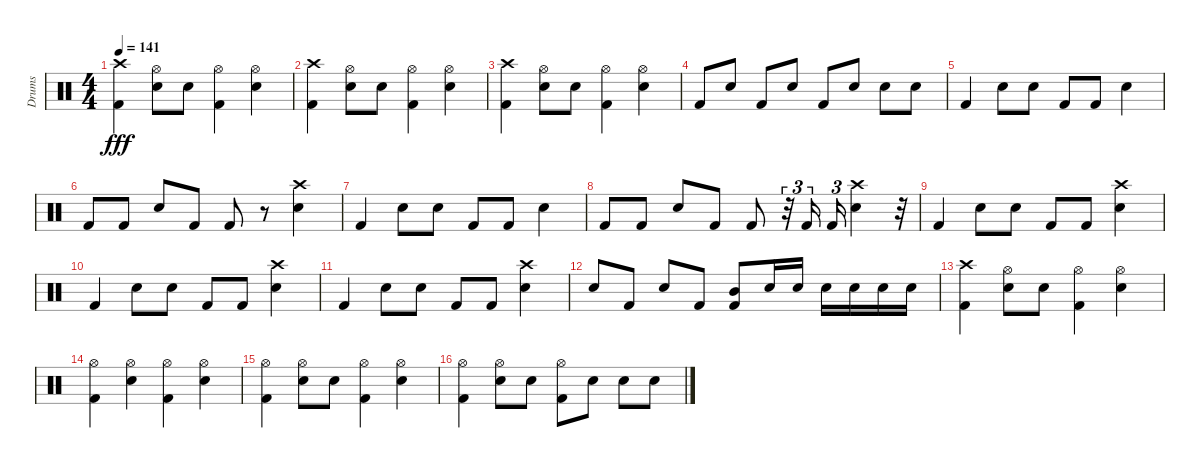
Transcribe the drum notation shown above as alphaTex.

\track ("Drums" "Drums") {instrument percussion}
\staff {score}
\articulation defaults
\ts (4 4)
\tempo 141
\clef neutral
\ks c
("Crash high (hit)" "Kick (hit) 2").4{dy fff} ("Hi-Hat (open)" "Electric Snare (hit)").8 "Electric Snare (hit)".8 ("Hi-Hat (open)" "Kick (hit) 2").4 ("Hi-Hat (open)" "Electric Snare (hit)").4 |
("Crash high (hit)" "Kick (hit) 2").4 ("Hi-Hat (open)" "Electric Snare (hit)").8 "Electric Snare (hit)".8 ("Hi-Hat (open)" "Kick (hit) 2").4 ("Hi-Hat (open)" "Electric Snare (hit)").4 |
("Crash high (hit)" "Kick (hit) 2").4 ("Hi-Hat (open)" "Electric Snare (hit)").8 "Electric Snare (hit)".8 ("Hi-Hat (open)" "Kick (hit) 2").4 ("Hi-Hat (open)" "Electric Snare (hit)").4 |
"Kick (hit) 2".8 "Electric Snare (hit)".8 "Kick (hit) 2".8 "Electric Snare (hit)".8 "Kick (hit) 2".8 "Electric Snare (hit)".8 "Electric Snare (hit)".8 "Electric Snare (hit)".8 |
"Kick (hit) 2".4 "Electric Snare (hit)".8 "Electric Snare (hit)".8 "Kick (hit) 2".8 "Kick (hit) 2".8 "Electric Snare (hit)".4 |
"Kick (hit) 2".8 "Kick (hit) 2".8 "Electric Snare (hit)".8 "Kick (hit) 2".8 "Kick (hit) 2".8 r.8 ("Crash high (hit)" "Electric Snare (hit)").4 |
"Kick (hit) 2".4 "Electric Snare (hit)".8 "Electric Snare (hit)".8 "Kick (hit) 2".8 "Kick (hit) 2".8 "Electric Snare (hit)".4 |
"Kick (hit) 2".8 "Kick (hit) 2".8 "Electric Snare (hit)".8 "Kick (hit) 2".8 "Kick (hit) 2".8 r.32{tu (3 2)} "Kick (hit) 2".16{tu (3 2)} "Kick (hit) 2".16{tu (3 2)} ("Crash high (hit)" "Electric Snare (hit)").4 r.32{tu (3 2)} |
"Kick (hit) 2".4 "Electric Snare (hit)".8 "Electric Snare (hit)".8 "Kick (hit) 2".8 "Kick (hit) 2".8 ("Crash high (hit)" "Electric Snare (hit)").4 |
"Kick (hit) 2".4 "Electric Snare (hit)".8 "Electric Snare (hit)".8 "Kick (hit) 2".8 "Kick (hit) 2".8 ("Crash high (hit)" "Electric Snare (hit)").4 |
"Kick (hit) 2".4 "Electric Snare (hit)".8 "Electric Snare (hit)".8 "Kick (hit) 2".8 "Kick (hit) 2".8 ("Crash high (hit)" "Electric Snare (hit)").4 |
"Electric Snare (hit)".8 "Kick (hit) 2".8 "Electric Snare (hit)".8 "Kick (hit) 2".8 ("Mid Tom (hit)" "Kick (hit) 2").8 "Electric Snare (hit)".16 "Electric Snare (hit)".16 "Electric Snare (hit)".16 "Electric Snare (hit)".16 "Electric Snare (hit)".16 "Electric Snare (hit)".16 |
("Crash high (hit)" "Kick (hit) 2").4 ("Hi-Hat (open)" "Electric Snare (hit)").8 "Electric Snare (hit)".8 ("Hi-Hat (open)" "Kick (hit) 2").4 ("Hi-Hat (open)" "Electric Snare (hit)").4 |
("Hi-Hat (open)" "Kick (hit) 2").4 ("Hi-Hat (open)" "Electric Snare (hit)").4 ("Hi-Hat (open)" "Kick (hit) 2").4 ("Hi-Hat (open)" "Electric Snare (hit)").4 |
("Hi-Hat (open)" "Kick (hit) 2").4 ("Hi-Hat (open)" "Electric Snare (hit)").8 "Electric Snare (hit)".8 ("Hi-Hat (open)" "Kick (hit) 2").4 ("Hi-Hat (open)" "Electric Snare (hit)").4 |
("Hi-Hat (open)" "Kick (hit) 2").4 ("Hi-Hat (open)" "Electric Snare (hit)").8 "Electric Snare (hit)".8 ("Hi-Hat (open)" "Kick (hit) 2").8 "Electric Snare (hit)".8 "Electric Snare (hit)".8 "Electric Snare (hit)".8
